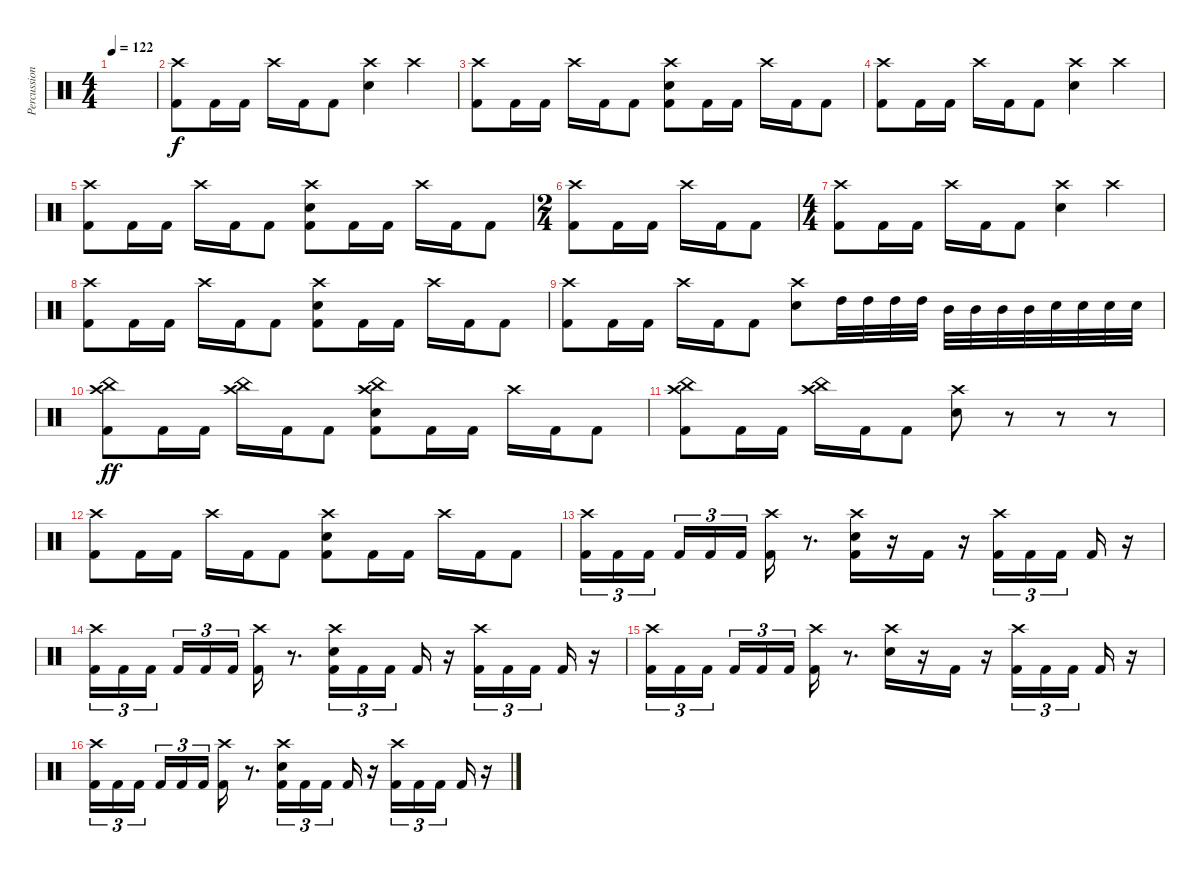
\track ("Percussion" "Percussion") {instrument percussion}
\staff {score}
\articulation defaults
\ts (4 4)
\tempo 122
\clef neutral
\ks c
|
("Crash high (hit)" "Kick (hit) 2").8{volume 15} "Kick (hit) 2".16 "Kick (hit) 2".16 "Crash high (hit)".16 "Kick (hit) 2".16 "Kick (hit) 2".8 ("Crash high (hit)" "Electric Snare (hit)").4 "Crash high (hit)".4 |
("Crash high (hit)" "Kick (hit) 2").8 "Kick (hit) 2".16 "Kick (hit) 2".16 "Crash high (hit)".16 "Kick (hit) 2".16 "Kick (hit) 2".8 ("Crash high (hit)" "Electric Snare (hit)" "Kick (hit) 2").8 "Kick (hit) 2".16 "Kick (hit) 2".16 "Crash high (hit)".16 "Kick (hit) 2".16 "Kick (hit) 2".8 |
("Crash high (hit)" "Kick (hit) 2").8 "Kick (hit) 2".16 "Kick (hit) 2".16 "Crash high (hit)".16 "Kick (hit) 2".16 "Kick (hit) 2".8 ("Crash high (hit)" "Electric Snare (hit)").4 "Crash high (hit)".4 |
("Crash high (hit)" "Kick (hit) 2").8 "Kick (hit) 2".16 "Kick (hit) 2".16 "Crash high (hit)".16 "Kick (hit) 2".16 "Kick (hit) 2".8 ("Crash high (hit)" "Electric Snare (hit)" "Kick (hit) 2").8 "Kick (hit) 2".16 "Kick (hit) 2".16 "Crash high (hit)".16 "Kick (hit) 2".16 "Kick (hit) 2".8 |
\ts (2 4)
("Crash high (hit)" "Kick (hit) 2").8 "Kick (hit) 2".16 "Kick (hit) 2".16 "Crash high (hit)".16 "Kick (hit) 2".16 "Kick (hit) 2".8 |
\ts (4 4)
("Crash high (hit)" "Kick (hit) 2").8 "Kick (hit) 2".16 "Kick (hit) 2".16 "Crash high (hit)".16 "Kick (hit) 2".16 "Kick (hit) 2".8 ("Crash high (hit)" "Electric Snare (hit)").4 "Crash high (hit)".4 |
("Crash high (hit)" "Kick (hit) 2").8 "Kick (hit) 2".16 "Kick (hit) 2".16 "Crash high (hit)".16 "Kick (hit) 2".16 "Kick (hit) 2".8 ("Crash high (hit)" "Electric Snare (hit)" "Kick (hit) 2").8 "Kick (hit) 2".16 "Kick (hit) 2".16 "Crash high (hit)".16 "Kick (hit) 2".16 "Kick (hit) 2".8 |
("Crash high (hit)" "Kick (hit) 2").8 "Kick (hit) 2".16 "Kick (hit) 2".16 "Crash high (hit)".16 "Kick (hit) 2".16 "Kick (hit) 2".8 ("Crash high (hit)" "Electric Snare (hit)").8 "High Tom (hit)".32{dy f} "High Tom (hit)".32 "High Tom (hit)".32 "High Tom (hit)".32 "Mid Tom (hit)".32 "Mid Tom (hit)".32 "Mid Tom (hit)".32 "Mid Tom (hit)".32 "Electric Snare (hit)".32 "Electric Snare (hit)".32 "Electric Snare (hit)".32 "Electric Snare (hit)".32 |
("Crash high (hit)" "China (hit)" "Kick (hit) 2").8{dy ff} "Kick (hit) 2".16 "Kick (hit) 2".16 ("Crash high (hit)" "China (hit)").16 "Kick (hit) 2".16 "Kick (hit) 2".8 ("China (hit)" "Crash high (hit)" "Electric Snare (hit)" "Kick (hit) 2").8 "Kick (hit) 2".16 "Kick (hit) 2".16 "Crash high (hit)".16 "Kick (hit) 2".16 "Kick (hit) 2".8 |
("Crash high (hit)" "China (hit)" "Kick (hit) 2").8 "Kick (hit) 2".16 "Kick (hit) 2".16 ("Crash high (hit)" "China (hit)").16 "Kick (hit) 2".16 "Kick (hit) 2".8 ("Crash high (hit)" "Electric Snare (hit)").8 r.8{volume 0} r.8 r.8 |
("Crash high (hit)" "Kick (hit) 2").8{volume 16} "Kick (hit) 2".16 "Kick (hit) 2".16 "Crash high (hit)".16 "Kick (hit) 2".16 "Kick (hit) 2".8 ("Crash high (hit)" "Electric Snare (hit)" "Kick (hit) 2").8 "Kick (hit) 2".16 "Kick (hit) 2".16 "Crash high (hit)".16 "Kick (hit) 2".16 "Kick (hit) 2".8 |
("Crash high (hit)" "Kick (hit) 2").16{tu (3 2)} "Kick (hit) 2".16{tu (3 2)} "Kick (hit) 2".16{tu (3 2) beam splitsecondary} "Kick (hit) 2".16{tu (3 2)} "Kick (hit) 2".16{tu (3 2)} "Kick (hit) 2".16{tu (3 2)} ("Crash high (hit)" "Kick (hit) 2").16 r.8{d} ("Crash high (hit)" "Electric Snare (hit)" "Kick (hit) 2").16 r.16 "Kick (hit) 2".16 r.16 ("Crash high (hit)" "Kick (hit) 2").16{tu (3 2)} "Kick (hit) 2".16{tu (3 2)} "Kick (hit) 2".16{tu (3 2) beam splitsecondary} "Kick (hit) 2".16 r.16 |
("Crash high (hit)" "Kick (hit) 2").16{tu (3 2)} "Kick (hit) 2".16{tu (3 2)} "Kick (hit) 2".16{tu (3 2) beam splitsecondary} "Kick (hit) 2".16{tu (3 2)} "Kick (hit) 2".16{tu (3 2)} "Kick (hit) 2".16{tu (3 2)} ("Crash high (hit)" "Kick (hit) 2").16 r.8{d} ("Crash high (hit)" "Electric Snare (hit)" "Kick (hit) 2").16{tu (3 2)} "Kick (hit) 2".16{tu (3 2)} "Kick (hit) 2".16{tu (3 2) beam splitsecondary} "Kick (hit) 2".16 r.16 ("Crash high (hit)" "Kick (hit) 2").16{tu (3 2)} "Kick (hit) 2".16{tu (3 2)} "Kick (hit) 2".16{tu (3 2) beam splitsecondary} "Kick (hit) 2".16 r.16 |
("Crash high (hit)" "Kick (hit) 2").16{tu (3 2)} "Kick (hit) 2".16{tu (3 2)} "Kick (hit) 2".16{tu (3 2) beam splitsecondary} "Kick (hit) 2".16{tu (3 2)} "Kick (hit) 2".16{tu (3 2)} "Kick (hit) 2".16{tu (3 2)} ("Crash high (hit)" "Kick (hit) 2").16 r.8{d} ("Crash high (hit)" "Electric Snare (hit)").16 r.16 "Kick (hit) 2".16 r.16 ("Crash high (hit)" "Kick (hit) 2").16{tu (3 2)} "Kick (hit) 2".16{tu (3 2)} "Kick (hit) 2".16{tu (3 2) beam splitsecondary} "Kick (hit) 2".16 r.16 |
("Crash high (hit)" "Kick (hit) 2").16{tu (3 2)} "Kick (hit) 2".16{tu (3 2)} "Kick (hit) 2".16{tu (3 2) beam splitsecondary} "Kick (hit) 2".16{tu (3 2)} "Kick (hit) 2".16{tu (3 2)} "Kick (hit) 2".16{tu (3 2)} ("Crash high (hit)" "Kick (hit) 2").16 r.8{d} ("Crash high (hit)" "Electric Snare (hit)" "Kick (hit) 2").16{tu (3 2)} "Kick (hit) 2".16{tu (3 2)} "Kick (hit) 2".16{tu (3 2) beam splitsecondary} "Kick (hit) 2".16 r.16 ("Crash high (hit)" "Kick (hit) 2").16{tu (3 2)} "Kick (hit) 2".16{tu (3 2)} "Kick (hit) 2".16{tu (3 2) beam splitsecondary} "Kick (hit) 2".16 r.16
